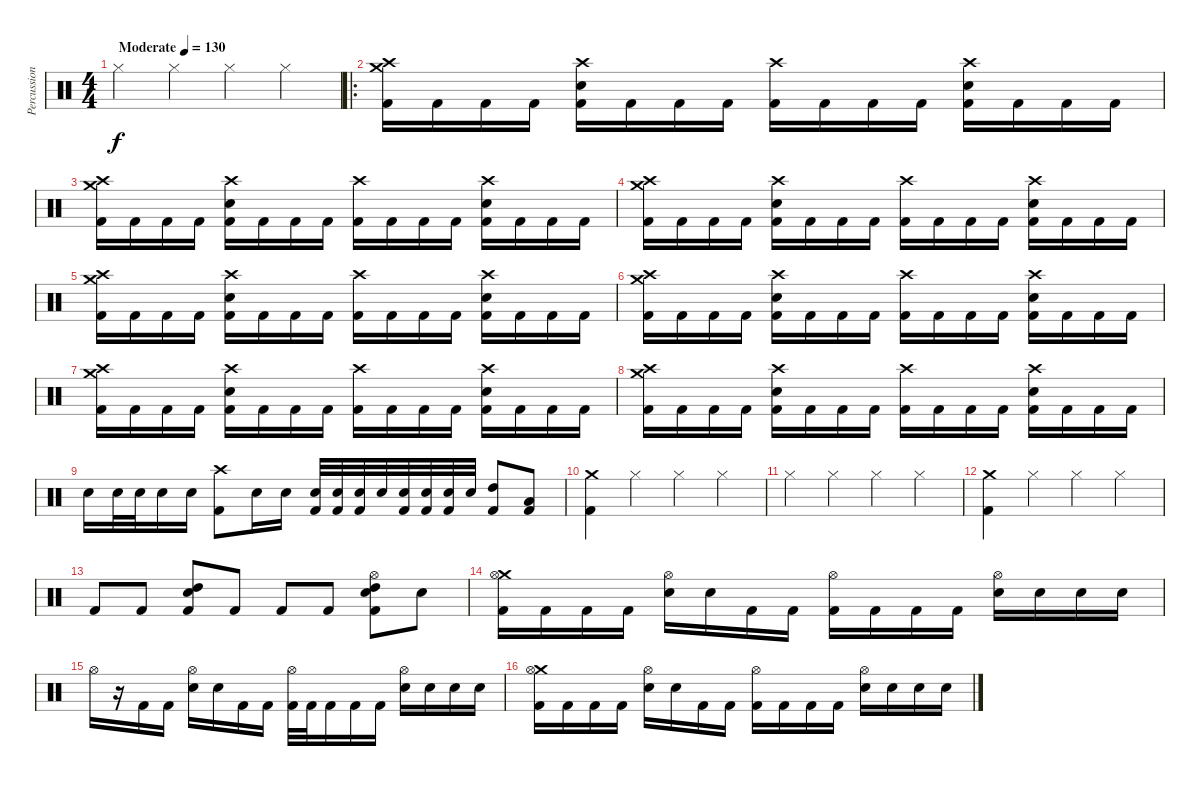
\track ("Percussion" "Percussion") {instrument percussion}
\staff {score}
\articulation defaults
\ts (4 4)
\tempo (130 "Moderate")
\clef neutral
\ks c "Hi-Hat (closed)".4{dy f} "Hi-Hat (closed)".4 "Hi-Hat (closed)".4 "Hi-Hat (closed)".4
|
\ro
("Crash medium (hit)" "Crash high (hit)" "Kick (hit) 2").16 "Kick (hit) 2".16 "Kick (hit) 2".16 "Kick (hit) 2".16 ("Crash high (hit)" "Snare (hit) 2" "Kick (hit) 2").16 "Kick (hit) 2".16 "Kick (hit) 2".16 "Kick (hit) 2".16 ("Crash high (hit)" "Kick (hit) 2").16 "Kick (hit) 2".16 "Kick (hit) 2".16 "Kick (hit) 2".16 ("Crash high (hit)" "Snare (hit) 2" "Kick (hit) 2").16 "Kick (hit) 2".16 "Kick (hit) 2".16 "Kick (hit) 2".16 |
("Crash high (hit)" "Crash medium (hit)" "Kick (hit) 2").16 "Kick (hit) 2".16 "Kick (hit) 2".16 "Kick (hit) 2".16 ("Crash high (hit)" "Snare (hit) 2" "Kick (hit) 2").16 "Kick (hit) 2".16 "Kick (hit) 2".16 "Kick (hit) 2".16 ("Crash high (hit)" "Kick (hit) 2").16 "Kick (hit) 2".16 "Kick (hit) 2".16 "Kick (hit) 2".16 ("Crash high (hit)" "Snare (hit) 2" "Kick (hit) 2").16 "Kick (hit) 2".16 "Kick (hit) 2".16 "Kick (hit) 2".16 |
("Crash medium (hit)" "Crash high (hit)" "Kick (hit) 2").16 "Kick (hit) 2".16 "Kick (hit) 2".16 "Kick (hit) 2".16 ("Crash high (hit)" "Snare (hit) 2" "Kick (hit) 2").16 "Kick (hit) 2".16 "Kick (hit) 2".16 "Kick (hit) 2".16 ("Crash high (hit)" "Kick (hit) 2").16 "Kick (hit) 2".16 "Kick (hit) 2".16 "Kick (hit) 2".16 ("Crash high (hit)" "Snare (hit) 2" "Kick (hit) 2").16 "Kick (hit) 2".16 "Kick (hit) 2".16 "Kick (hit) 2".16 |
("Crash high (hit)" "Crash medium (hit)" "Kick (hit) 2").16 "Kick (hit) 2".16 "Kick (hit) 2".16 "Kick (hit) 2".16 ("Crash high (hit)" "Snare (hit) 2" "Kick (hit) 2").16 "Kick (hit) 2".16 "Kick (hit) 2".16 "Kick (hit) 2".16 ("Crash high (hit)" "Kick (hit) 2").16 "Kick (hit) 2".16 "Kick (hit) 2".16 "Kick (hit) 2".16 ("Crash high (hit)" "Snare (hit) 2" "Kick (hit) 2").16 "Kick (hit) 2".16 "Kick (hit) 2".16 "Kick (hit) 2".16 |
("Crash medium (hit)" "Crash high (hit)" "Kick (hit) 2").16 "Kick (hit) 2".16 "Kick (hit) 2".16 "Kick (hit) 2".16 ("Crash high (hit)" "Snare (hit) 2" "Kick (hit) 2").16 "Kick (hit) 2".16 "Kick (hit) 2".16 "Kick (hit) 2".16 ("Crash high (hit)" "Kick (hit) 2").16 "Kick (hit) 2".16 "Kick (hit) 2".16 "Kick (hit) 2".16 ("Crash high (hit)" "Snare (hit) 2" "Kick (hit) 2").16 "Kick (hit) 2".16 "Kick (hit) 2".16 "Kick (hit) 2".16 |
("Crash high (hit)" "Crash medium (hit)" "Kick (hit) 2").16 "Kick (hit) 2".16 "Kick (hit) 2".16 "Kick (hit) 2".16 ("Crash high (hit)" "Snare (hit) 2" "Kick (hit) 2").16 "Kick (hit) 2".16 "Kick (hit) 2".16 "Kick (hit) 2".16 ("Crash high (hit)" "Kick (hit) 2").16 "Kick (hit) 2".16 "Kick (hit) 2".16 "Kick (hit) 2".16 ("Crash high (hit)" "Snare (hit) 2" "Kick (hit) 2").16 "Kick (hit) 2".16 "Kick (hit) 2".16 "Kick (hit) 2".16 |
("Crash high (hit)" "Crash medium (hit)" "Kick (hit) 2").16 "Kick (hit) 2".16 "Kick (hit) 2".16 "Kick (hit) 2".16 ("Crash high (hit)" "Snare (hit) 2" "Kick (hit) 2").16 "Kick (hit) 2".16 "Kick (hit) 2".16 "Kick (hit) 2".16 ("Crash high (hit)" "Kick (hit) 2").16 "Kick (hit) 2".16 "Kick (hit) 2".16 "Kick (hit) 2".16 ("Crash high (hit)" "Snare (hit) 2" "Kick (hit) 2").16 "Kick (hit) 2".16 "Kick (hit) 2".16 "Kick (hit) 2".16 |
"Snare (hit) 2".16 "Snare (hit) 2".32 "Snare (hit) 2".32 "Snare (hit) 2".16 "Snare (hit) 2".16 ("Crash high (hit)" "Kick (hit) 2").8 "Snare (hit) 2".16 "Snare (hit) 2".16 ("Snare (hit) 2" "Kick (hit) 2").32 ("Snare (hit) 2" "Kick (hit) 2").32 ("Snare (hit) 2" "Kick (hit) 2").32 "Snare (hit)".32 ("Snare (hit) 2" "Kick (hit) 2").32 ("Snare (hit) 2" "Kick (hit) 2").32 ("Snare (hit) 2" "Kick (hit) 2").32 "Snare (hit)".32 ("High Tom (hit)" "Kick (hit) 2").8 ("Low Tom (hit)" "Kick (hit) 2").8 |
("Crash medium (hit)" "Kick (hit) 2").4 "Hi-Hat (closed)".4 "Hi-Hat (closed)".4 "Hi-Hat (closed)".4 |
"Hi-Hat (closed)".4 "Hi-Hat (closed)".4 "Hi-Hat (closed)".4 "Hi-Hat (closed)".4 |
("Crash medium (hit)" "Kick (hit) 2").4 "Hi-Hat (closed)".4 "Hi-Hat (closed)".4 "Hi-Hat (closed)".4 |
"Kick (hit) 2".8 "Kick (hit) 2".8 ("High Tom (hit)" "Snare (hit) 2" "Kick (hit) 2").8 "Kick (hit) 2".8 "Kick (hit) 2".8 "Kick (hit) 2".8 ("Snare (hit) 2" "High Tom (hit)" "Kick (hit) 2" "Hi-Hat (open)").8 "Snare (hit)".8 |
("Crash medium (hit)" "Hi-Hat (open)" "Kick (hit) 2").16 "Kick (hit) 2".16 "Kick (hit) 2".16 "Kick (hit) 2".16 ("Hi-Hat (open)" "Snare (hit) 2").16 "Snare (hit)".16 "Kick (hit) 2".16 "Kick (hit) 2".16 ("Hi-Hat (open)" "Kick (hit) 2").16 "Kick (hit) 2".16 "Kick (hit) 2".16 "Kick (hit) 2".16 ("Hi-Hat (open)" "Snare (hit) 2").16 "Snare (hit)".16 "Snare (hit)".16 "Snare (hit)".16 |
"Hi-Hat (open)".16 r.16 "Kick (hit) 2".16 "Kick (hit) 2".16 ("Hi-Hat (open)" "Snare (hit) 2").16 "Snare (hit)".16 "Kick (hit) 2".16 "Kick (hit) 2".16 ("Hi-Hat (open)" "Kick (hit) 2").32 "Kick (hit) 2".32 "Kick (hit) 2".16 "Kick (hit) 2".16 "Kick (hit) 2".16 ("Hi-Hat (open)" "Snare (hit) 2").16 "Snare (hit)".16 "Snare (hit)".16 "Snare (hit)".16 |
("Crash medium (hit)" "Hi-Hat (open)" "Kick (hit) 2").16 "Kick (hit) 2".16 "Kick (hit) 2".16 "Kick (hit) 2".16 ("Hi-Hat (open)" "Snare (hit) 2").16 "Snare (hit)".16 "Kick (hit) 2".16 "Kick (hit) 2".16 ("Hi-Hat (open)" "Kick (hit) 2").16 "Kick (hit) 2".16 "Kick (hit) 2".16 "Kick (hit) 2".16 ("Hi-Hat (open)" "Snare (hit) 2").16 "Snare (hit)".16 "Snare (hit)".16 "Snare (hit)".16
